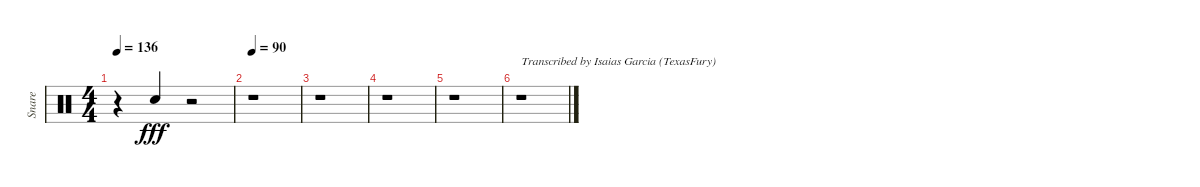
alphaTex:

\track ("Snare" "Snare") {instrument percussion}
\staff {score}
\articulation defaults
\ts (4 4)
\tempo 136
\clef neutral
\ks c
r.4{dy fff beam merge} "Electric Snare (hit)".4{beam Up} r.2 |
\tempo 90
r.1 |
r.1 |
r.1 |
r.1 |
r.1{txt "Transcribed by Isaias Garcia (TexasFury)"}
